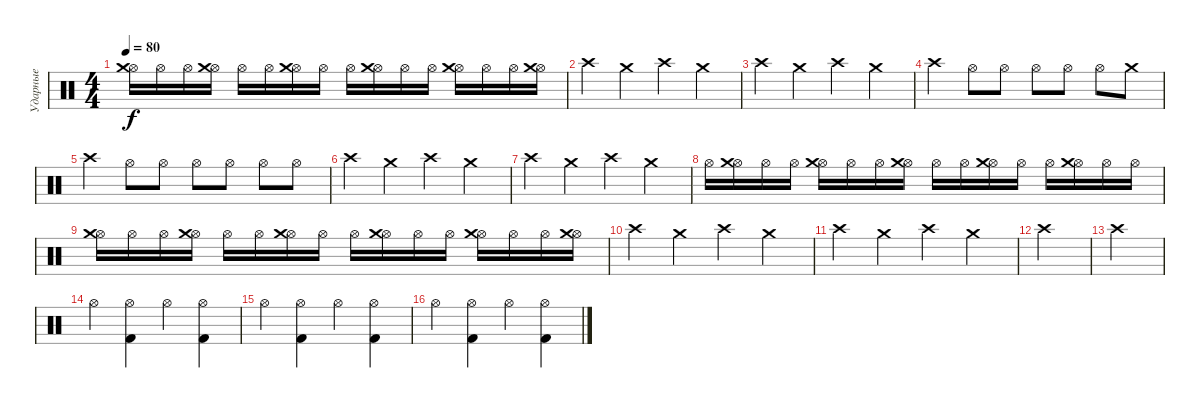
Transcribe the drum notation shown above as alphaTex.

\track ("Ударные" "Ударные") {instrument percussion}
\staff {score}
\articulation defaults
\ts (4 4)
\tempo 80
\clef neutral
\ks c
("Hi-Hat (open)" "Crash medium (hit)").16{dy f} "Hi-Hat (open)".16 "Hi-Hat (open)".16 ("Hi-Hat (open)" "Crash medium (hit)").16 "Hi-Hat (open)".16 "Hi-Hat (open)".16 ("Hi-Hat (open)" "Crash medium (hit)").16 "Hi-Hat (open)".16 "Hi-Hat (open)".16 ("Hi-Hat (open)" "Crash medium (hit)").16 "Hi-Hat (open)".16 "Hi-Hat (open)".16 ("Hi-Hat (open)" "Crash medium (hit)").16 "Hi-Hat (open)".16 "Hi-Hat (open)".16 ("Hi-Hat (open)" "Crash medium (hit)").16 |
"Crash high (hit)".4 "Crash medium (hit)".4 "Crash high (hit)".4 "Crash medium (hit)".4 |
"Crash high (hit)".4 "Crash medium (hit)".4 "Crash high (hit)".4 "Crash medium (hit)".4 |
"Crash high (hit)".4 "Hi-Hat (open)".8 "Hi-Hat (open)".8 "Hi-Hat (open)".8 "Hi-Hat (open)".8 "Hi-Hat (open)".8 "Crash medium (hit)".8 |
"Crash high (hit)".4 "Hi-Hat (open)".8 "Hi-Hat (open)".8 "Hi-Hat (open)".8 "Hi-Hat (open)".8 "Hi-Hat (open)".8 "Hi-Hat (open)".8 |
"Crash high (hit)".4 "Crash medium (hit)".4 "Crash high (hit)".4 "Crash medium (hit)".4 |
"Crash high (hit)".4 "Crash medium (hit)".4 "Crash high (hit)".4 "Crash medium (hit)".4 |
"Hi-Hat (open)".16 ("Hi-Hat (open)" "Crash medium (hit)").16 "Hi-Hat (open)".16 "Hi-Hat (open)".16 ("Hi-Hat (open)" "Crash medium (hit)").16 "Hi-Hat (open)".16 "Hi-Hat (open)".16 ("Hi-Hat (open)" "Crash medium (hit)").16 "Hi-Hat (open)".16 "Hi-Hat (open)".16 ("Hi-Hat (open)" "Crash medium (hit)").16 "Hi-Hat (open)".16 "Hi-Hat (open)".16 ("Hi-Hat (open)" "Crash medium (hit)").16 "Hi-Hat (open)".16 "Hi-Hat (open)".16 |
("Hi-Hat (open)" "Crash medium (hit)").16 "Hi-Hat (open)".16 "Hi-Hat (open)".16 ("Hi-Hat (open)" "Crash medium (hit)").16 "Hi-Hat (open)".16 "Hi-Hat (open)".16 ("Hi-Hat (open)" "Crash medium (hit)").16 "Hi-Hat (open)".16 "Hi-Hat (open)".16 ("Hi-Hat (open)" "Crash medium (hit)").16 "Hi-Hat (open)".16 "Hi-Hat (open)".16 ("Hi-Hat (open)" "Crash medium (hit)").16 "Hi-Hat (open)".16 "Hi-Hat (open)".16 ("Hi-Hat (open)" "Crash medium (hit)").16 |
"Crash high (hit)".4 "Crash medium (hit)".4 "Crash high (hit)".4 "Crash medium (hit)".4 |
"Crash high (hit)".4 "Crash medium (hit)".4 "Crash high (hit)".4 "Crash medium (hit)".4 |
"Crash high (hit)".4 |
"Crash high (hit)".4 |
"Hi-Hat (open)".4 ("Hi-Hat (open)" "Kick (hit) 2").4 "Hi-Hat (open)".4 ("Hi-Hat (open)" "Kick (hit) 2").4 |
"Hi-Hat (open)".4 ("Hi-Hat (open)" "Kick (hit) 2").4 "Hi-Hat (open)".4 ("Hi-Hat (open)" "Kick (hit) 2").4 |
"Hi-Hat (open)".4 ("Hi-Hat (open)" "Kick (hit) 2").4 "Hi-Hat (open)".4 ("Hi-Hat (open)" "Kick (hit) 2").4
